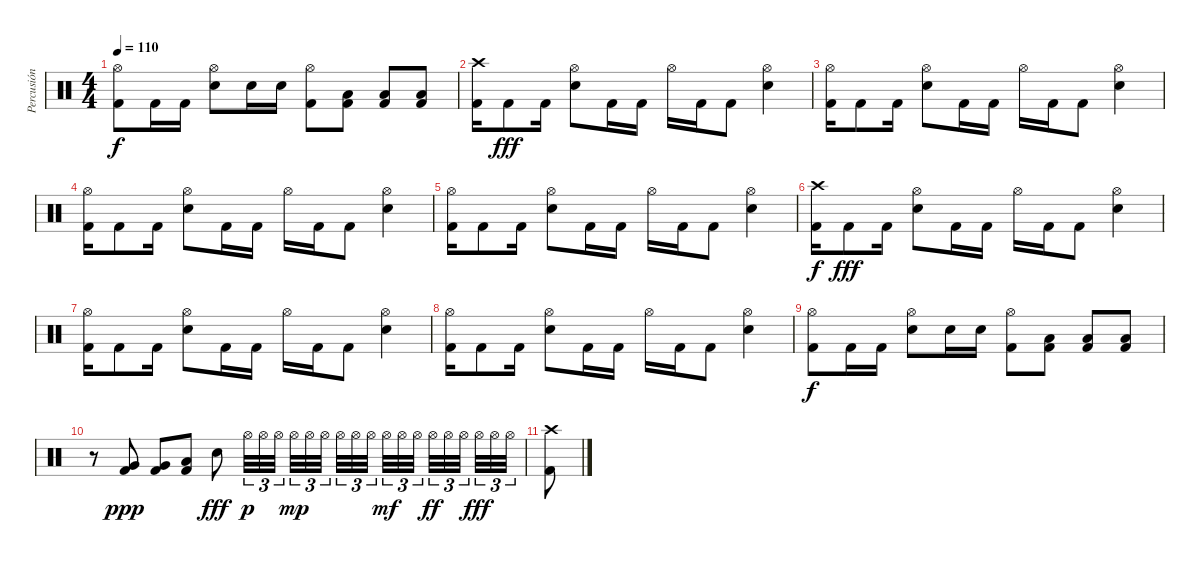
\track ("Percusión" "Percusión") {instrument percussion}
\staff {score}
\articulation defaults
\ts (4 4)
\tempo 110
\clef neutral
\ks c
("Hi-Hat (open)" "Kick (hit) 2").8{dy f} "Kick (hit) 2".16 "Kick (hit) 2".16 ("Hi-Hat (open)" "Electric Snare (hit)").8 "Electric Snare (hit)".16 "Electric Snare (hit)".16 ("Hi-Hat (open)" "Kick (hit) 2").8 ("Low Floor Tom (hit)" "Kick (hit) 2").8 ("Low Floor Tom (hit)" "Kick (hit) 2").8 ("Low Floor Tom (hit)" "Kick (hit) 2").8 |
("Crash high (hit)" "Kick (hit) 2").16 "Kick (hit) 2".8{dy fff} "Kick (hit) 2".16 ("Hi-Hat (open)" "Electric Snare (hit)").8 "Kick (hit) 2".16 "Kick (hit) 2".16 "Hi-Hat (open)".16 "Kick (hit) 2".16 "Kick (hit) 2".8 ("Hi-Hat (open)" "Electric Snare (hit)").4 |
("Hi-Hat (open)" "Kick (hit) 2").16 "Kick (hit) 2".8 "Kick (hit) 2".16 ("Hi-Hat (open)" "Electric Snare (hit)").8 "Kick (hit) 2".16 "Kick (hit) 2".16 "Hi-Hat (open)".16 "Kick (hit) 2".16 "Kick (hit) 2".8 ("Hi-Hat (open)" "Electric Snare (hit)").4 |
("Hi-Hat (open)" "Kick (hit) 2").16 "Kick (hit) 2".8 "Kick (hit) 2".16 ("Hi-Hat (open)" "Electric Snare (hit)").8 "Kick (hit) 2".16 "Kick (hit) 2".16 "Hi-Hat (open)".16 "Kick (hit) 2".16 "Kick (hit) 2".8 ("Hi-Hat (open)" "Electric Snare (hit)").4 |
("Hi-Hat (open)" "Kick (hit) 2").16 "Kick (hit) 2".8 "Kick (hit) 2".16 ("Hi-Hat (open)" "Electric Snare (hit)").8 "Kick (hit) 2".16 "Kick (hit) 2".16 "Hi-Hat (open)".16 "Kick (hit) 2".16 "Kick (hit) 2".8 ("Hi-Hat (open)" "Electric Snare (hit)").4 |
("Crash high (hit)" "Kick (hit) 2").16{dy f} "Kick (hit) 2".8{dy fff} "Kick (hit) 2".16 ("Hi-Hat (open)" "Electric Snare (hit)").8 "Kick (hit) 2".16 "Kick (hit) 2".16 "Hi-Hat (open)".16 "Kick (hit) 2".16 "Kick (hit) 2".8 ("Hi-Hat (open)" "Electric Snare (hit)").4 |
("Hi-Hat (open)" "Kick (hit) 2").16 "Kick (hit) 2".8 "Kick (hit) 2".16 ("Hi-Hat (open)" "Electric Snare (hit)").8 "Kick (hit) 2".16 "Kick (hit) 2".16 "Hi-Hat (open)".16 "Kick (hit) 2".16 "Kick (hit) 2".8 ("Hi-Hat (open)" "Electric Snare (hit)").4 |
("Hi-Hat (open)" "Kick (hit) 2").16 "Kick (hit) 2".8 "Kick (hit) 2".16 ("Hi-Hat (open)" "Electric Snare (hit)").8 "Kick (hit) 2".16 "Kick (hit) 2".16 "Hi-Hat (open)".16 "Kick (hit) 2".16 "Kick (hit) 2".8 ("Hi-Hat (open)" "Electric Snare (hit)").4 |
("Hi-Hat (open)" "Kick (hit) 2").8{dy f} "Kick (hit) 2".16 "Kick (hit) 2".16 ("Hi-Hat (open)" "Electric Snare (hit)").8 "Electric Snare (hit)".16 "Electric Snare (hit)".16 ("Hi-Hat (open)" "Kick (hit) 2").8 ("Low Floor Tom (hit)" "Kick (hit) 2").8 ("Low Floor Tom (hit)" "Kick (hit) 2").8 ("Low Floor Tom (hit)" "Kick (hit) 2").8 |
r.8 ("Very Low Tom (hit)" "Kick (hit) 2").8{dy ppp} ("Very Low Tom (hit)" "Kick (hit) 2").8 ("Low Floor Tom (hit)" "Kick (hit) 2").8 "Electric Snare (hit)".8{dy fff} "Hi-Hat (open)".32{tu (3 2) dy p} "Hi-Hat (open)".32{tu (3 2)} "Hi-Hat (open)".32{tu (3 2) beam splitsecondary} "Hi-Hat (open)".32{tu (3 2) dy mp} "Hi-Hat (open)".32{tu (3 2)} "Hi-Hat (open)".32{tu (3 2)} "Hi-Hat (open)".32{tu (3 2)} "Hi-Hat (open)".32{tu (3 2)} "Hi-Hat (open)".32{tu (3 2) beam splitsecondary} "Hi-Hat (open)".32{tu (3 2) dy mf} "Hi-Hat (open)".32{tu (3 2)} "Hi-Hat (open)".32{tu (3 2) beam splitsecondary} "Hi-Hat (open)".32{tu (3 2) dy ff} "Hi-Hat (open)".32{tu (3 2)} "Hi-Hat (open)".32{tu (3 2) beam splitsecondary} "Hi-Hat (open)".32{tu (3 2) dy fff} "Hi-Hat (open)".32{tu (3 2)} "Hi-Hat (open)".32{tu (3 2)} |
("Crash high (hit)" "Kick (hit) 2").8
